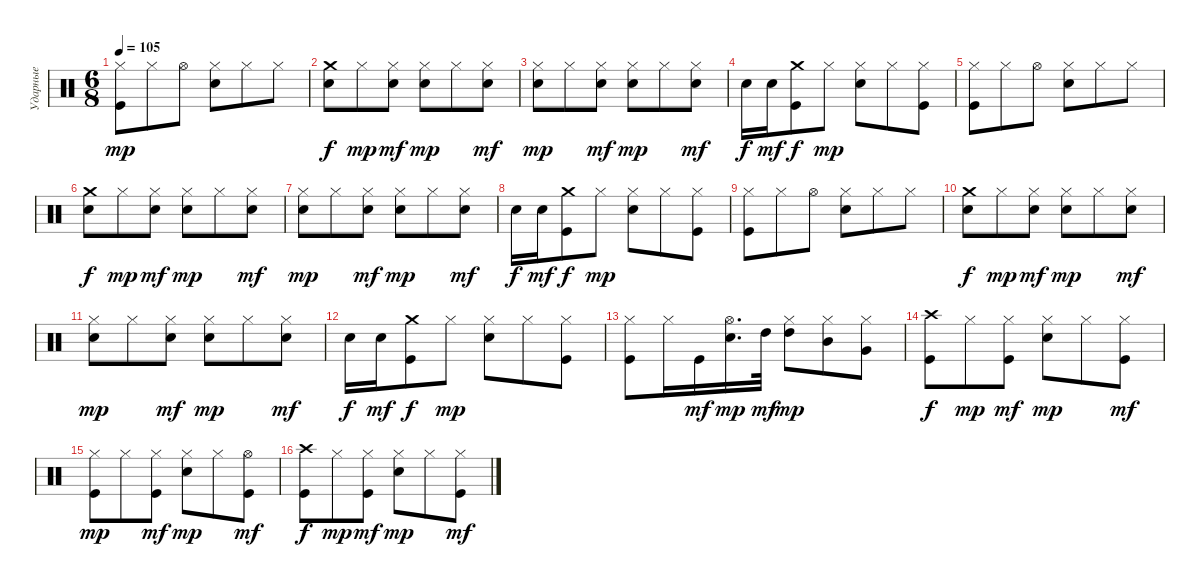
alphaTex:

\track ("Ударные" "Ударные") {instrument percussion}
\staff {score}
\articulation defaults
\ts (6 8)
\tempo 105
\clef neutral
\ks c
("Hi-Hat (closed)" "Kick (hit)").8{dy mp} "Hi-Hat (closed)".8 "Hi-Hat (open)".8 ("Hi-Hat (closed)" "Electric Snare (hit)").8 "Hi-Hat (closed)".8 "Hi-Hat (closed)".8 |
("Crash medium (hit)" "Electric Snare (hit)").8{dy f} "Hi-Hat (closed)".8{dy mp} ("Hi-Hat (closed)" "Electric Snare (hit)").8{dy mf} ("Hi-Hat (closed)" "Electric Snare (hit)").8{dy mp} "Hi-Hat (closed)".8 ("Hi-Hat (closed)" "Electric Snare (hit)").8{dy mf} |
("Hi-Hat (closed)" "Electric Snare (hit)").8{dy mp} "Hi-Hat (closed)".8 ("Hi-Hat (closed)" "Electric Snare (hit)").8{dy mf} ("Hi-Hat (closed)" "Electric Snare (hit)").8{dy mp} "Hi-Hat (closed)".8 ("Hi-Hat (closed)" "Electric Snare (hit)").8{dy mf} |
"Electric Snare (hit)".16{dy f} "Electric Snare (hit)".16{dy mf} ("Crash medium (hit)" "Kick (hit)").8{dy f} "Hi-Hat (closed)".8{dy mp} ("Hi-Hat (closed)" "Electric Snare (hit)").8 "Hi-Hat (closed)".8 ("Hi-Hat (closed)" "Kick (hit)").8 |
("Hi-Hat (closed)" "Kick (hit)").8 "Hi-Hat (closed)".8 "Hi-Hat (open)".8 ("Hi-Hat (closed)" "Electric Snare (hit)").8 "Hi-Hat (closed)".8 "Hi-Hat (closed)".8 |
("Crash medium (hit)" "Electric Snare (hit)").8{dy f} "Hi-Hat (closed)".8{dy mp} ("Hi-Hat (closed)" "Electric Snare (hit)").8{dy mf} ("Hi-Hat (closed)" "Electric Snare (hit)").8{dy mp} "Hi-Hat (closed)".8 ("Hi-Hat (closed)" "Electric Snare (hit)").8{dy mf} |
("Hi-Hat (closed)" "Electric Snare (hit)").8{dy mp} "Hi-Hat (closed)".8 ("Hi-Hat (closed)" "Electric Snare (hit)").8{dy mf} ("Hi-Hat (closed)" "Electric Snare (hit)").8{dy mp} "Hi-Hat (closed)".8 ("Hi-Hat (closed)" "Electric Snare (hit)").8{dy mf} |
"Electric Snare (hit)".16{dy f} "Electric Snare (hit)".16{dy mf} ("Crash medium (hit)" "Kick (hit)").8{dy f} "Hi-Hat (closed)".8{dy mp} ("Hi-Hat (closed)" "Electric Snare (hit)").8 "Hi-Hat (closed)".8 ("Hi-Hat (closed)" "Kick (hit)").8 |
("Hi-Hat (closed)" "Kick (hit)").8 "Hi-Hat (closed)".8 "Hi-Hat (open)".8 ("Hi-Hat (closed)" "Electric Snare (hit)").8 "Hi-Hat (closed)".8 "Hi-Hat (closed)".8 |
("Crash medium (hit)" "Electric Snare (hit)").8{dy f} "Hi-Hat (closed)".8{dy mp} ("Hi-Hat (closed)" "Electric Snare (hit)").8{dy mf} ("Hi-Hat (closed)" "Electric Snare (hit)").8{dy mp} "Hi-Hat (closed)".8 ("Hi-Hat (closed)" "Electric Snare (hit)").8{dy mf} |
("Hi-Hat (closed)" "Electric Snare (hit)").8{dy mp} "Hi-Hat (closed)".8 ("Hi-Hat (closed)" "Electric Snare (hit)").8{dy mf} ("Hi-Hat (closed)" "Electric Snare (hit)").8{dy mp} "Hi-Hat (closed)".8 ("Hi-Hat (closed)" "Electric Snare (hit)").8{dy mf} |
"Electric Snare (hit)".16{dy f} "Electric Snare (hit)".16{dy mf} ("Crash medium (hit)" "Kick (hit)").8{dy f} "Hi-Hat (closed)".8{dy mp} ("Hi-Hat (closed)" "Electric Snare (hit)").8 "Hi-Hat (closed)".8 ("Hi-Hat (closed)" "Kick (hit)").8 |
("Kick (hit)" "Hi-Hat (closed)").8 "Hi-Hat (closed)".16 "Kick (hit)".16{dy mf} ("Electric Snare (hit)" "Hi-Hat (open)").16{d dy mp} "High Tom (hit)".32{dy mf} ("High Tom (hit)" "Hi-Hat (closed)").8{dy mp} ("Mid Tom (hit)" "Hi-Hat (closed)").8 ("Very Low Tom (hit)" "Hi-Hat (closed)").8 |
("Crash high (hit)" "Kick (hit)").8{dy f} "Hi-Hat (closed)".8{dy mp} ("Hi-Hat (closed)" "Kick (hit)").8{dy mf} ("Hi-Hat (closed)" "Electric Snare (hit)").8{dy mp} "Hi-Hat (closed)".8 ("Hi-Hat (closed)" "Kick (hit)").8{dy mf} |
("Hi-Hat (closed)" "Kick (hit)").8{dy mp} "Hi-Hat (closed)".8 ("Hi-Hat (closed)" "Kick (hit)").8{dy mf} ("Hi-Hat (closed)" "Electric Snare (hit)").8{dy mp} "Hi-Hat (closed)".8 ("Hi-Hat (open)" "Kick (hit)").8{dy mf} |
("Crash high (hit)" "Kick (hit)").8{dy f} "Hi-Hat (closed)".8{dy mp} ("Hi-Hat (closed)" "Kick (hit)").8{dy mf} ("Hi-Hat (closed)" "Electric Snare (hit)").8{dy mp} "Hi-Hat (closed)".8 ("Hi-Hat (closed)" "Kick (hit)").8{dy mf}
